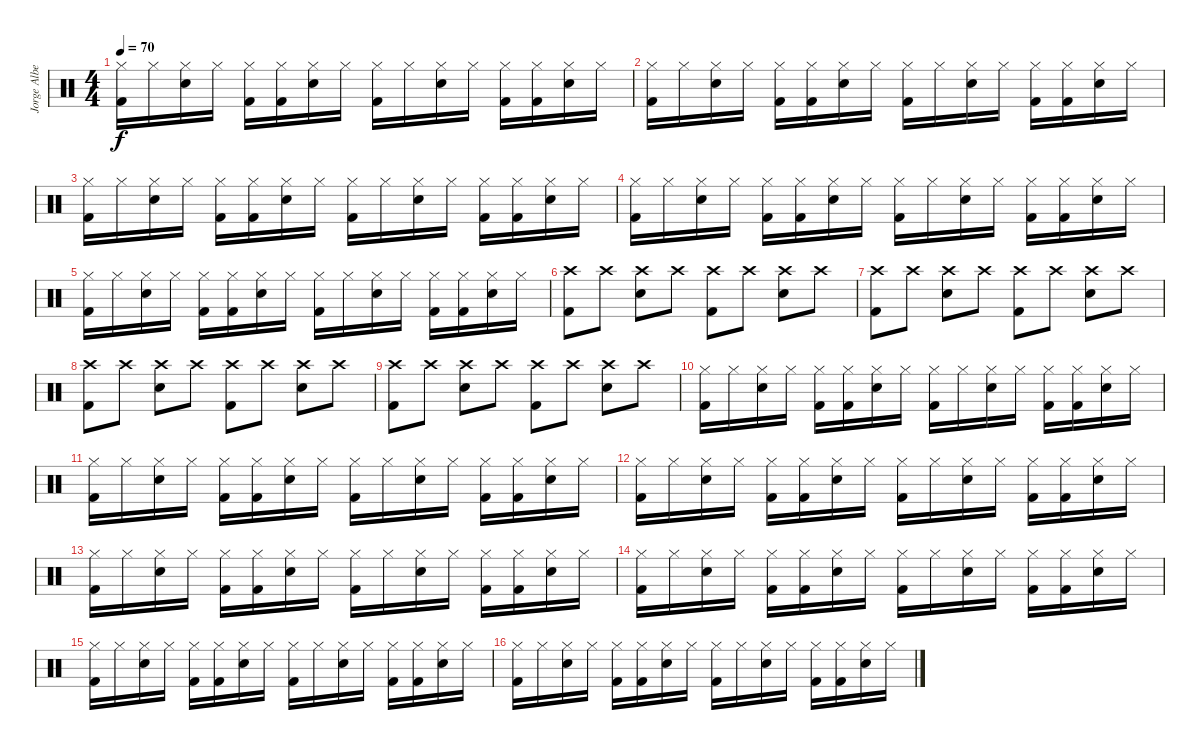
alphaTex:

\track ("Jorge Alberti" "Jorge Albe") {instrument percussion}
\staff {score}
\articulation defaults
\ts (4 4)
\tempo 70
\clef neutral
\ks c
("Hi-Hat (closed)" "Kick (hit) 2").16{dy f} "Hi-Hat (closed)".16 ("Hi-Hat (closed)" "Snare (hit) 2").16 "Hi-Hat (closed)".16 ("Hi-Hat (closed)" "Kick (hit) 2").16 ("Hi-Hat (closed)" "Kick (hit) 2").16 ("Hi-Hat (closed)" "Snare (hit) 2").16 "Hi-Hat (closed)".16 ("Hi-Hat (closed)" "Kick (hit) 2").16 "Hi-Hat (closed)".16 ("Hi-Hat (closed)" "Snare (hit) 2").16 "Hi-Hat (closed)".16 ("Hi-Hat (closed)" "Kick (hit) 2").16 ("Hi-Hat (closed)" "Kick (hit) 2").16 ("Hi-Hat (closed)" "Snare (hit) 2").16 "Hi-Hat (closed)".16 |
("Hi-Hat (closed)" "Kick (hit) 2").16 "Hi-Hat (closed)".16 ("Hi-Hat (closed)" "Snare (hit) 2").16 "Hi-Hat (closed)".16 ("Hi-Hat (closed)" "Kick (hit) 2").16 ("Hi-Hat (closed)" "Kick (hit) 2").16 ("Hi-Hat (closed)" "Snare (hit) 2").16 "Hi-Hat (closed)".16 ("Hi-Hat (closed)" "Kick (hit) 2").16 "Hi-Hat (closed)".16 ("Hi-Hat (closed)" "Snare (hit) 2").16 "Hi-Hat (closed)".16 ("Hi-Hat (closed)" "Kick (hit) 2").16 ("Hi-Hat (closed)" "Kick (hit) 2").16 ("Hi-Hat (closed)" "Snare (hit) 2").16 "Hi-Hat (closed)".16 |
("Hi-Hat (closed)" "Kick (hit) 2").16 "Hi-Hat (closed)".16 ("Hi-Hat (closed)" "Snare (hit) 2").16 "Hi-Hat (closed)".16 ("Hi-Hat (closed)" "Kick (hit) 2").16 ("Hi-Hat (closed)" "Kick (hit) 2").16 ("Hi-Hat (closed)" "Snare (hit) 2").16 "Hi-Hat (closed)".16 ("Hi-Hat (closed)" "Kick (hit) 2").16 "Hi-Hat (closed)".16 ("Hi-Hat (closed)" "Snare (hit) 2").16 "Hi-Hat (closed)".16 ("Hi-Hat (closed)" "Kick (hit) 2").16 ("Hi-Hat (closed)" "Kick (hit) 2").16 ("Hi-Hat (closed)" "Snare (hit) 2").16 "Hi-Hat (closed)".16 |
("Hi-Hat (closed)" "Kick (hit) 2").16 "Hi-Hat (closed)".16 ("Hi-Hat (closed)" "Snare (hit) 2").16 "Hi-Hat (closed)".16 ("Hi-Hat (closed)" "Kick (hit) 2").16 ("Hi-Hat (closed)" "Kick (hit) 2").16 ("Hi-Hat (closed)" "Snare (hit) 2").16 "Hi-Hat (closed)".16 ("Hi-Hat (closed)" "Kick (hit) 2").16 "Hi-Hat (closed)".16 ("Hi-Hat (closed)" "Snare (hit) 2").16 "Hi-Hat (closed)".16 ("Hi-Hat (closed)" "Kick (hit) 2").16 ("Hi-Hat (closed)" "Kick (hit) 2").16 ("Hi-Hat (closed)" "Snare (hit) 2").16 "Hi-Hat (closed)".16 |
("Hi-Hat (closed)" "Kick (hit) 2").16 "Hi-Hat (closed)".16 ("Hi-Hat (closed)" "Snare (hit) 2").16 "Hi-Hat (closed)".16 ("Hi-Hat (closed)" "Kick (hit) 2").16 ("Hi-Hat (closed)" "Kick (hit) 2").16 ("Hi-Hat (closed)" "Snare (hit) 2").16 "Hi-Hat (closed)".16 ("Hi-Hat (closed)" "Kick (hit) 2").16 "Hi-Hat (closed)".16 ("Hi-Hat (closed)" "Snare (hit) 2").16 "Hi-Hat (closed)".16 ("Hi-Hat (closed)" "Kick (hit) 2").16 ("Hi-Hat (closed)" "Kick (hit) 2").16 ("Hi-Hat (closed)" "Snare (hit) 2").16 "Hi-Hat (closed)".16 |
("Crash high (hit)" "Kick (hit) 2").8 "Crash high (hit)".8 ("Crash high (hit)" "Snare (hit) 2").8 "Crash high (hit)".8 ("Crash high (hit)" "Kick (hit) 2").8 "Crash high (hit)".8 ("Crash high (hit)" "Snare (hit) 2").8 "Crash high (hit)".8 |
("Crash high (hit)" "Kick (hit) 2").8 "Crash high (hit)".8 ("Crash high (hit)" "Snare (hit) 2").8 "Crash high (hit)".8 ("Crash high (hit)" "Kick (hit) 2").8 "Crash high (hit)".8 ("Crash high (hit)" "Snare (hit) 2").8 "Crash high (hit)".8 |
("Crash high (hit)" "Kick (hit) 2").8 "Crash high (hit)".8 ("Crash high (hit)" "Snare (hit) 2").8 "Crash high (hit)".8 ("Crash high (hit)" "Kick (hit) 2").8 "Crash high (hit)".8 ("Crash high (hit)" "Snare (hit) 2").8 "Crash high (hit)".8 |
("Crash high (hit)" "Kick (hit) 2").8 "Crash high (hit)".8 ("Crash high (hit)" "Snare (hit) 2").8 "Crash high (hit)".8 ("Crash high (hit)" "Kick (hit) 2").8 "Crash high (hit)".8 ("Crash high (hit)" "Snare (hit) 2").8 "Crash high (hit)".8 |
("Hi-Hat (closed)" "Kick (hit) 2").16 "Hi-Hat (closed)".16 ("Hi-Hat (closed)" "Snare (hit) 2").16 "Hi-Hat (closed)".16 ("Hi-Hat (closed)" "Kick (hit) 2").16 ("Hi-Hat (closed)" "Kick (hit) 2").16 ("Hi-Hat (closed)" "Snare (hit) 2").16 "Hi-Hat (closed)".16 ("Hi-Hat (closed)" "Kick (hit) 2").16 "Hi-Hat (closed)".16 ("Hi-Hat (closed)" "Snare (hit) 2").16 "Hi-Hat (closed)".16 ("Hi-Hat (closed)" "Kick (hit) 2").16 ("Hi-Hat (closed)" "Kick (hit) 2").16 ("Hi-Hat (closed)" "Snare (hit) 2").16 "Hi-Hat (closed)".16 |
("Hi-Hat (closed)" "Kick (hit) 2").16 "Hi-Hat (closed)".16 ("Hi-Hat (closed)" "Snare (hit) 2").16 "Hi-Hat (closed)".16 ("Hi-Hat (closed)" "Kick (hit) 2").16 ("Hi-Hat (closed)" "Kick (hit) 2").16 ("Hi-Hat (closed)" "Snare (hit) 2").16 "Hi-Hat (closed)".16 ("Hi-Hat (closed)" "Kick (hit) 2").16 "Hi-Hat (closed)".16 ("Hi-Hat (closed)" "Snare (hit) 2").16 "Hi-Hat (closed)".16 ("Hi-Hat (closed)" "Kick (hit) 2").16 ("Hi-Hat (closed)" "Kick (hit) 2").16 ("Hi-Hat (closed)" "Snare (hit) 2").16 "Hi-Hat (closed)".16 |
("Hi-Hat (closed)" "Kick (hit) 2").16 "Hi-Hat (closed)".16 ("Hi-Hat (closed)" "Snare (hit) 2").16 "Hi-Hat (closed)".16 ("Hi-Hat (closed)" "Kick (hit) 2").16 ("Hi-Hat (closed)" "Kick (hit) 2").16 ("Hi-Hat (closed)" "Snare (hit) 2").16 "Hi-Hat (closed)".16 ("Hi-Hat (closed)" "Kick (hit) 2").16 "Hi-Hat (closed)".16 ("Hi-Hat (closed)" "Snare (hit) 2").16 "Hi-Hat (closed)".16 ("Hi-Hat (closed)" "Kick (hit) 2").16 ("Hi-Hat (closed)" "Kick (hit) 2").16 ("Hi-Hat (closed)" "Snare (hit) 2").16 "Hi-Hat (closed)".16 |
("Hi-Hat (closed)" "Kick (hit) 2").16 "Hi-Hat (closed)".16 ("Hi-Hat (closed)" "Snare (hit) 2").16 "Hi-Hat (closed)".16 ("Hi-Hat (closed)" "Kick (hit) 2").16 ("Hi-Hat (closed)" "Kick (hit) 2").16 ("Hi-Hat (closed)" "Snare (hit) 2").16 "Hi-Hat (closed)".16 ("Hi-Hat (closed)" "Kick (hit) 2").16 "Hi-Hat (closed)".16 ("Hi-Hat (closed)" "Snare (hit) 2").16 "Hi-Hat (closed)".16 ("Hi-Hat (closed)" "Kick (hit) 2").16 ("Hi-Hat (closed)" "Kick (hit) 2").16 ("Hi-Hat (closed)" "Snare (hit) 2").16 "Hi-Hat (closed)".16 |
("Hi-Hat (closed)" "Kick (hit) 2").16 "Hi-Hat (closed)".16 ("Hi-Hat (closed)" "Snare (hit) 2").16 "Hi-Hat (closed)".16 ("Hi-Hat (closed)" "Kick (hit) 2").16 ("Hi-Hat (closed)" "Kick (hit) 2").16 ("Hi-Hat (closed)" "Snare (hit) 2").16 "Hi-Hat (closed)".16 ("Hi-Hat (closed)" "Kick (hit) 2").16 "Hi-Hat (closed)".16 ("Hi-Hat (closed)" "Snare (hit) 2").16 "Hi-Hat (closed)".16 ("Hi-Hat (closed)" "Kick (hit) 2").16 ("Hi-Hat (closed)" "Kick (hit) 2").16 ("Hi-Hat (closed)" "Snare (hit) 2").16 "Hi-Hat (closed)".16 |
("Hi-Hat (closed)" "Kick (hit) 2").16 "Hi-Hat (closed)".16 ("Hi-Hat (closed)" "Snare (hit) 2").16 "Hi-Hat (closed)".16 ("Hi-Hat (closed)" "Kick (hit) 2").16 ("Hi-Hat (closed)" "Kick (hit) 2").16 ("Hi-Hat (closed)" "Snare (hit) 2").16 "Hi-Hat (closed)".16 ("Hi-Hat (closed)" "Kick (hit) 2").16 "Hi-Hat (closed)".16 ("Hi-Hat (closed)" "Snare (hit) 2").16 "Hi-Hat (closed)".16 ("Hi-Hat (closed)" "Kick (hit) 2").16 ("Hi-Hat (closed)" "Kick (hit) 2").16 ("Hi-Hat (closed)" "Snare (hit) 2").16 "Hi-Hat (closed)".16 |
("Hi-Hat (closed)" "Kick (hit) 2").16 "Hi-Hat (closed)".16 ("Hi-Hat (closed)" "Snare (hit) 2").16 "Hi-Hat (closed)".16 ("Hi-Hat (closed)" "Kick (hit) 2").16 ("Hi-Hat (closed)" "Kick (hit) 2").16 ("Hi-Hat (closed)" "Snare (hit) 2").16 "Hi-Hat (closed)".16 ("Hi-Hat (closed)" "Kick (hit) 2").16 "Hi-Hat (closed)".16 ("Hi-Hat (closed)" "Snare (hit) 2").16 "Hi-Hat (closed)".16 ("Hi-Hat (closed)" "Kick (hit) 2").16 ("Hi-Hat (closed)" "Kick (hit) 2").16 ("Hi-Hat (closed)" "Snare (hit) 2").16 "Hi-Hat (closed)".16
